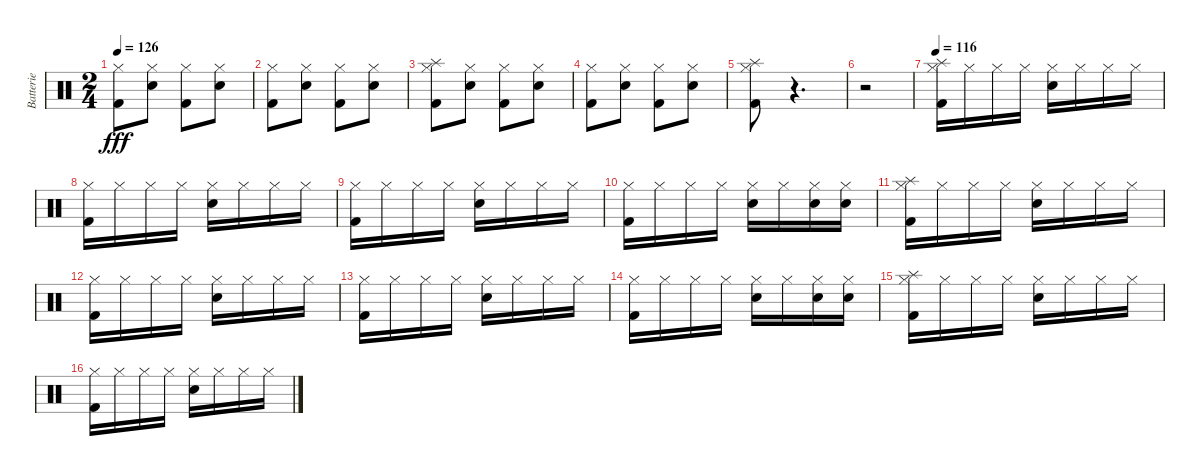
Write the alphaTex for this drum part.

\track ("Batterie" "Batterie") {instrument percussion}
\staff {score}
\articulation defaults
\ts (2 4)
\tempo 126
\clef neutral
\ks c
("Hi-Hat (closed)" "Kick (hit) 2").8{dy fff} ("Hi-Hat (closed)" "Electric Snare (hit)").8 ("Hi-Hat (closed)" "Kick (hit) 2").8 ("Hi-Hat (closed)" "Electric Snare (hit)").8 |
("Hi-Hat (closed)" "Kick (hit) 2").8 ("Hi-Hat (closed)" "Electric Snare (hit)").8 ("Hi-Hat (closed)" "Kick (hit) 2").8 ("Hi-Hat (closed)" "Electric Snare (hit)").8 |
("Splash (hit)" "Hi-Hat (closed)" "Kick (hit) 2").8 ("Hi-Hat (closed)" "Electric Snare (hit)").8 ("Hi-Hat (closed)" "Kick (hit) 2").8 ("Hi-Hat (closed)" "Electric Snare (hit)").8 |
("Hi-Hat (closed)" "Kick (hit) 2").8 ("Hi-Hat (closed)" "Electric Snare (hit)").8 ("Hi-Hat (closed)" "Kick (hit) 2").8 ("Hi-Hat (closed)" "Electric Snare (hit)").8 |
("Splash (hit)" "Hi-Hat (closed)" "Kick (hit) 2").8 r.4{d} |
r.2 |
\tempo 116
("Kick (hit) 2" "Hi-Hat (closed)" "Splash (hit)").16 "Hi-Hat (closed)".16 "Hi-Hat (closed)".16 "Hi-Hat (closed)".16 ("Hi-Hat (closed)" "Electric Snare (hit)").16 "Hi-Hat (closed)".16 "Hi-Hat (closed)".16 "Hi-Hat (closed)".16 |
("Kick (hit) 2" "Hi-Hat (closed)").16 "Hi-Hat (closed)".16 "Hi-Hat (closed)".16 "Hi-Hat (closed)".16 ("Hi-Hat (closed)" "Electric Snare (hit)").16 "Hi-Hat (closed)".16 "Hi-Hat (closed)".16 "Hi-Hat (closed)".16 |
("Kick (hit) 2" "Hi-Hat (closed)").16 "Hi-Hat (closed)".16 "Hi-Hat (closed)".16 "Hi-Hat (closed)".16 ("Hi-Hat (closed)" "Electric Snare (hit)").16 "Hi-Hat (closed)".16 "Hi-Hat (closed)".16 "Hi-Hat (closed)".16 |
("Kick (hit) 2" "Hi-Hat (closed)").16 "Hi-Hat (closed)".16 "Hi-Hat (closed)".16 "Hi-Hat (closed)".16 ("Electric Snare (hit)" "Hi-Hat (closed)").16 "Hi-Hat (closed)".16 ("Electric Snare (hit)" "Hi-Hat (closed)").16 ("Electric Snare (hit)" "Hi-Hat (closed)").16 |
("Kick (hit) 2" "Hi-Hat (closed)" "Splash (hit)").16 "Hi-Hat (closed)".16 "Hi-Hat (closed)".16 "Hi-Hat (closed)".16 ("Hi-Hat (closed)" "Electric Snare (hit)").16 "Hi-Hat (closed)".16 "Hi-Hat (closed)".16 "Hi-Hat (closed)".16 |
("Kick (hit) 2" "Hi-Hat (closed)").16 "Hi-Hat (closed)".16 "Hi-Hat (closed)".16 "Hi-Hat (closed)".16 ("Hi-Hat (closed)" "Electric Snare (hit)").16 "Hi-Hat (closed)".16 "Hi-Hat (closed)".16 "Hi-Hat (closed)".16 |
("Kick (hit) 2" "Hi-Hat (closed)").16 "Hi-Hat (closed)".16 "Hi-Hat (closed)".16 "Hi-Hat (closed)".16 ("Hi-Hat (closed)" "Electric Snare (hit)").16 "Hi-Hat (closed)".16 "Hi-Hat (closed)".16 "Hi-Hat (closed)".16 |
("Kick (hit) 2" "Hi-Hat (closed)").16 "Hi-Hat (closed)".16 "Hi-Hat (closed)".16 "Hi-Hat (closed)".16 ("Electric Snare (hit)" "Hi-Hat (closed)").16 "Hi-Hat (closed)".16 ("Electric Snare (hit)" "Hi-Hat (closed)").16 ("Electric Snare (hit)" "Hi-Hat (closed)").16 |
("Kick (hit) 2" "Hi-Hat (closed)" "Splash (hit)").16 "Hi-Hat (closed)".16 "Hi-Hat (closed)".16 "Hi-Hat (closed)".16 ("Hi-Hat (closed)" "Electric Snare (hit)").16 "Hi-Hat (closed)".16 "Hi-Hat (closed)".16 "Hi-Hat (closed)".16 |
("Kick (hit) 2" "Hi-Hat (closed)").16 "Hi-Hat (closed)".16 "Hi-Hat (closed)".16 "Hi-Hat (closed)".16 ("Hi-Hat (closed)" "Electric Snare (hit)").16 "Hi-Hat (closed)".16 "Hi-Hat (closed)".16 "Hi-Hat (closed)".16
